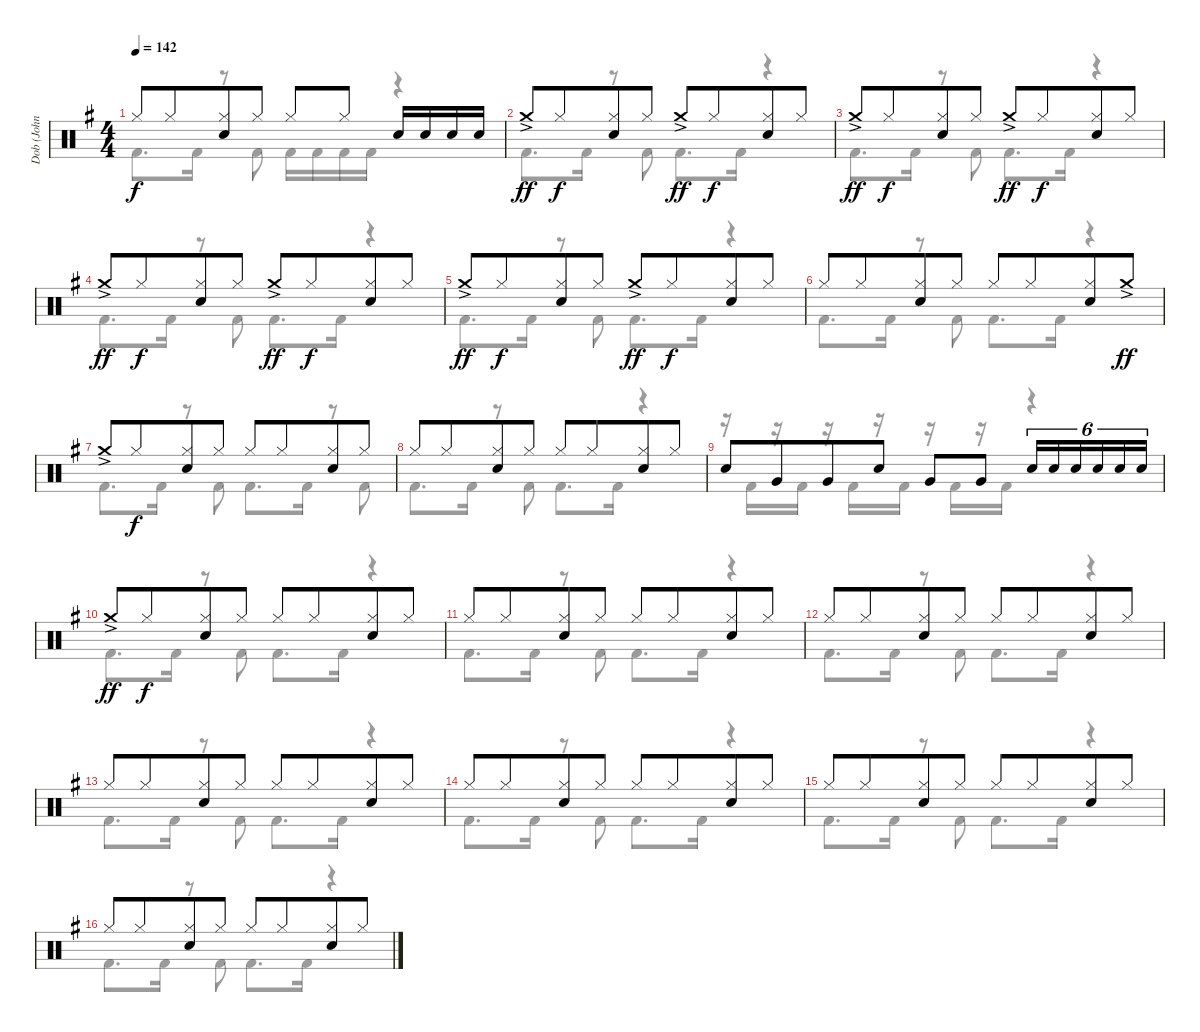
\track ("Dob (John O'Reilly)" "Dob (John ") {instrument percussion}
\staff {score}
\articulation defaults
\voice
\ts (4 4)
\tempo 142
\clef neutral
\ks g "Hi-Hat (closed)".8{dy f} "Hi-Hat (closed)".8{beam merge}
("Hi-Hat (closed)" "Electric Snare (hit)").8 "Hi-Hat (closed)".8 "Hi-Hat (closed)".8 "Hi-Hat (closed)".8 "Electric Snare (hit)".16 "Electric Snare (hit)".16 "Electric Snare (hit)".16 "Electric Snare (hit)".16 |
"Crash medium (hit)"{ac}.8{dy ff} "Hi-Hat (closed)".8{dy f beam merge} ("Hi-Hat (closed)" "Electric Snare (hit)").8 "Hi-Hat (closed)".8 "Crash medium (hit)"{ac}.8{dy ff} "Hi-Hat (closed)".8{dy f beam merge} ("Hi-Hat (closed)" "Electric Snare (hit)").8 "Hi-Hat (closed)".8 |
"Crash medium (hit)"{ac}.8{dy ff} "Hi-Hat (closed)".8{dy f beam merge} ("Hi-Hat (closed)" "Electric Snare (hit)").8 "Hi-Hat (closed)".8 "Crash medium (hit)"{ac}.8{dy ff} "Hi-Hat (closed)".8{dy f beam merge} ("Hi-Hat (closed)" "Electric Snare (hit)").8 "Hi-Hat (closed)".8 |
"Crash medium (hit)"{ac}.8{dy ff} "Hi-Hat (closed)".8{dy f beam merge} ("Hi-Hat (closed)" "Electric Snare (hit)").8 "Hi-Hat (closed)".8 "Crash medium (hit)"{ac}.8{dy ff} "Hi-Hat (closed)".8{dy f beam merge} ("Hi-Hat (closed)" "Electric Snare (hit)").8 "Hi-Hat (closed)".8 |
"Crash medium (hit)"{ac}.8{dy ff} "Hi-Hat (closed)".8{dy f beam merge} ("Hi-Hat (closed)" "Electric Snare (hit)").8 "Hi-Hat (closed)".8 "Crash medium (hit)"{ac}.8{dy ff} "Hi-Hat (closed)".8{dy f beam merge} ("Hi-Hat (closed)" "Electric Snare (hit)").8 "Hi-Hat (closed)".8 |
"Hi-Hat (closed)".8 "Hi-Hat (closed)".8{beam merge} ("Hi-Hat (closed)" "Electric Snare (hit)").8 "Hi-Hat (closed)".8 "Hi-Hat (closed)".8 "Hi-Hat (closed)".8{beam merge} ("Hi-Hat (closed)" "Electric Snare (hit)").8 "Crash medium (hit)"{ac}.8{dy ff} |
"Crash medium (hit)"{ac}.8 "Hi-Hat (closed)".8{dy f beam merge} ("Hi-Hat (closed)" "Electric Snare (hit)").8 "Hi-Hat (closed)".8 "Hi-Hat (closed)".8 "Hi-Hat (closed)".8{beam merge} ("Hi-Hat (closed)" "Electric Snare (hit)").8 "Hi-Hat (closed)".8 |
"Hi-Hat (closed)".8 "Hi-Hat (closed)".8{beam merge} ("Hi-Hat (closed)" "Electric Snare (hit)").8 "Hi-Hat (closed)".8 "Hi-Hat (closed)".8 "Hi-Hat (closed)".8{beam merge} ("Hi-Hat (closed)" "Electric Snare (hit)").8 "Hi-Hat (closed)".8 |
"Electric Snare (hit)".8 "Very Low Tom (hit)".8{beam merge} "Very Low Tom (hit)".8 "Electric Snare (hit)".8 "Very Low Tom (hit)".8 "Very Low Tom (hit)".8 "Electric Snare (hit)".16{tu (6 4)} "Electric Snare (hit)".16{tu (6 4)} "Electric Snare (hit)".16{tu (6 4)} "Electric Snare (hit)".16{tu (6 4)} "Electric Snare (hit)".16{tu (6 4)} "Electric Snare (hit)".16{tu (6 4)} |
"Crash medium (hit)"{ac}.8{dy ff} "Hi-Hat (closed)".8{dy f beam merge} ("Hi-Hat (closed)" "Electric Snare (hit)").8 "Hi-Hat (closed)".8 "Hi-Hat (closed)".8 "Hi-Hat (closed)".8{beam merge} ("Hi-Hat (closed)" "Electric Snare (hit)").8 "Hi-Hat (closed)".8 |
"Hi-Hat (closed)".8 "Hi-Hat (closed)".8{beam merge} ("Hi-Hat (closed)" "Electric Snare (hit)").8 "Hi-Hat (closed)".8 "Hi-Hat (closed)".8 "Hi-Hat (closed)".8{beam merge} ("Hi-Hat (closed)" "Electric Snare (hit)").8 "Hi-Hat (closed)".8 |
"Hi-Hat (closed)".8 "Hi-Hat (closed)".8{beam merge} ("Hi-Hat (closed)" "Electric Snare (hit)").8 "Hi-Hat (closed)".8 "Hi-Hat (closed)".8 "Hi-Hat (closed)".8{beam merge} ("Hi-Hat (closed)" "Electric Snare (hit)").8 "Hi-Hat (closed)".8 |
"Hi-Hat (closed)".8 "Hi-Hat (closed)".8{beam merge} ("Hi-Hat (closed)" "Electric Snare (hit)").8 "Hi-Hat (closed)".8 "Hi-Hat (closed)".8 "Hi-Hat (closed)".8{beam merge} ("Hi-Hat (closed)" "Electric Snare (hit)").8 "Hi-Hat (closed)".8 |
"Hi-Hat (closed)".8 "Hi-Hat (closed)".8{beam merge} ("Hi-Hat (closed)" "Electric Snare (hit)").8 "Hi-Hat (closed)".8 "Hi-Hat (closed)".8 "Hi-Hat (closed)".8{beam merge} ("Hi-Hat (closed)" "Electric Snare (hit)").8 "Hi-Hat (closed)".8 |
"Hi-Hat (closed)".8 "Hi-Hat (closed)".8{beam merge} ("Hi-Hat (closed)" "Electric Snare (hit)").8 "Hi-Hat (closed)".8 "Hi-Hat (closed)".8 "Hi-Hat (closed)".8{beam merge} ("Hi-Hat (closed)" "Electric Snare (hit)").8 "Hi-Hat (closed)".8 |
"Hi-Hat (closed)".8 "Hi-Hat (closed)".8{beam merge} ("Hi-Hat (closed)" "Electric Snare (hit)").8 "Hi-Hat (closed)".8 "Hi-Hat (closed)".8 "Hi-Hat (closed)".8{beam merge} ("Hi-Hat (closed)" "Electric Snare (hit)").8 "Hi-Hat (closed)".8
\voice
\clef neutral
\ottava regular
\simile none
\ks g "Kick (hit) 2".8{d dy f} "Kick (hit) 2".16
r.8 "Kick (hit) 2".8 "Kick (hit) 2".16 "Kick (hit) 2".16 "Kick (hit) 2".16 "Kick (hit) 2".16 r.4 |
"Kick (hit) 2".8{d} "Kick (hit) 2".16 r.8 "Kick (hit) 2".8 "Kick (hit) 2".8{d} "Kick (hit) 2".16 r.4 |
"Kick (hit) 2".8{d} "Kick (hit) 2".16 r.8 "Kick (hit) 2".8 "Kick (hit) 2".8{d} "Kick (hit) 2".16 r.4 |
"Kick (hit) 2".8{d} "Kick (hit) 2".16 r.8 "Kick (hit) 2".8 "Kick (hit) 2".8{d} "Kick (hit) 2".16 r.4 |
"Kick (hit) 2".8{d} "Kick (hit) 2".16 r.8 "Kick (hit) 2".8 "Kick (hit) 2".8{d} "Kick (hit) 2".16 r.4 |
"Kick (hit) 2".8{d} "Kick (hit) 2".16 r.8 "Kick (hit) 2".8 "Kick (hit) 2".8{d} "Kick (hit) 2".16 r.4 |
"Kick (hit) 2".8{d} "Kick (hit) 2".16 r.8 "Kick (hit) 2".8 "Kick (hit) 2".8{d} "Kick (hit) 2".16 r.8 "Kick (hit) 2".8 |
"Kick (hit) 2".8{d} "Kick (hit) 2".16 r.8 "Kick (hit) 2".8 "Kick (hit) 2".8{d} "Kick (hit) 2".16 r.4 |
r.16 "Kick (hit) 2".16 r.16 "Kick (hit) 2".16 r.16 "Kick (hit) 2".16 r.16 "Kick (hit) 2".16 r.16 "Kick (hit) 2".16 r.16 "Kick (hit) 2".16 r.4 |
"Kick (hit) 2".8{d} "Kick (hit) 2".16 r.8 "Kick (hit) 2".8 "Kick (hit) 2".8{d} "Kick (hit) 2".16 r.4 |
"Kick (hit) 2".8{d} "Kick (hit) 2".16 r.8 "Kick (hit) 2".8 "Kick (hit) 2".8{d} "Kick (hit) 2".16 r.4 |
"Kick (hit) 2".8{d} "Kick (hit) 2".16 r.8 "Kick (hit) 2".8 "Kick (hit) 2".8{d} "Kick (hit) 2".16 r.4 |
"Kick (hit) 2".8{d} "Kick (hit) 2".16 r.8 "Kick (hit) 2".8 "Kick (hit) 2".8{d} "Kick (hit) 2".16 r.4 |
"Kick (hit) 2".8{d} "Kick (hit) 2".16 r.8 "Kick (hit) 2".8 "Kick (hit) 2".8{d} "Kick (hit) 2".16 r.4 |
"Kick (hit) 2".8{d} "Kick (hit) 2".16 r.8 "Kick (hit) 2".8 "Kick (hit) 2".8{d} "Kick (hit) 2".16 r.4 |
"Kick (hit) 2".8{d} "Kick (hit) 2".16 r.8 "Kick (hit) 2".8 "Kick (hit) 2".8{d} "Kick (hit) 2".16 r.4
